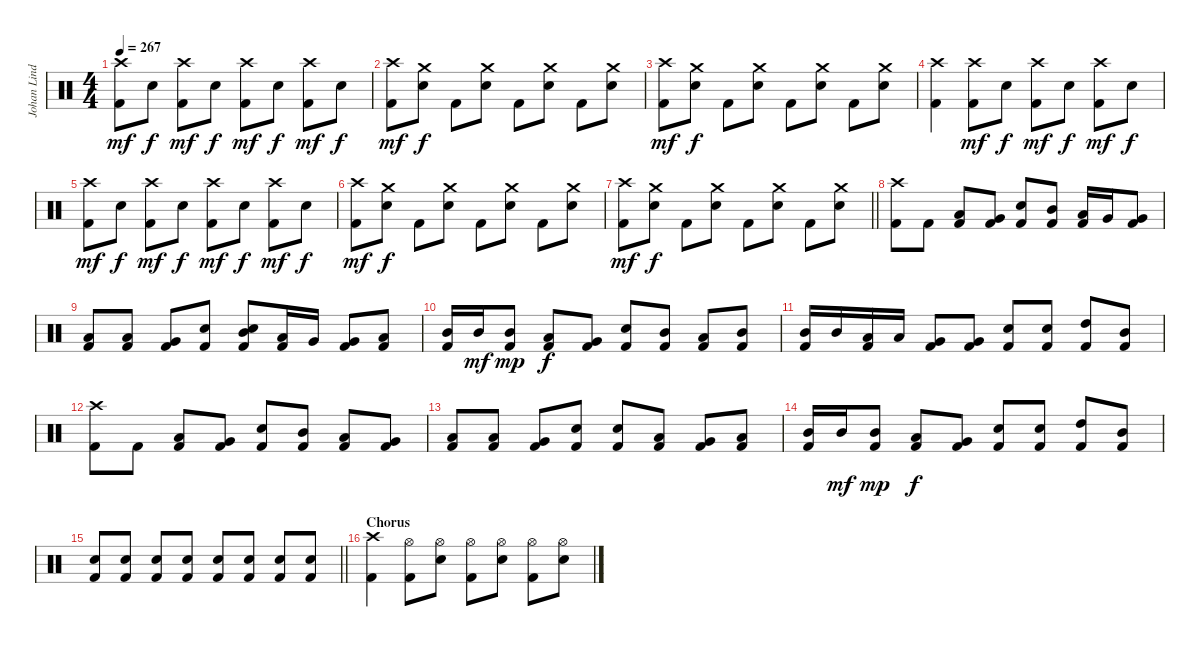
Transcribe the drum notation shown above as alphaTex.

\track ("Johan Lindstrand" "Johan Lind") {instrument percussion}
\staff {score}
\articulation defaults
\ts (4 4)
\tempo 267
\clef neutral
\ks c
("Crash high (hit)" "Kick (hit) 2").8{dy mf} "Electric Snare (hit)".8{dy f} ("Crash high (hit)" "Kick (hit) 2").8{dy mf} "Electric Snare (hit)".8{dy f} ("Crash high (hit)" "Kick (hit) 2").8{dy mf} "Electric Snare (hit)".8{dy f} ("Crash high (hit)" "Kick (hit) 2").8{dy mf} "Electric Snare (hit)".8{dy f} |
("Crash high (hit)" "Kick (hit) 2").8{dy mf} ("Crash medium (hit)" "Electric Snare (hit)").8{dy f} "Kick (hit) 2".8 ("Crash medium (hit)" "Electric Snare (hit)").8 "Kick (hit) 2".8 ("Crash medium (hit)" "Electric Snare (hit)").8 "Kick (hit) 2".8 ("Crash medium (hit)" "Electric Snare (hit)").8 |
("Crash high (hit)" "Kick (hit) 2").8{dy mf} ("Crash medium (hit)" "Electric Snare (hit)").8{dy f} "Kick (hit) 2".8 ("Crash medium (hit)" "Electric Snare (hit)").8 "Kick (hit) 2".8 ("Crash medium (hit)" "Electric Snare (hit)").8 "Kick (hit) 2".8 ("Crash medium (hit)" "Electric Snare (hit)").8 |
("Crash high (hit)" "Kick (hit) 2").4 ("Crash high (hit)" "Kick (hit) 2").8{dy mf} "Electric Snare (hit)".8{dy f} ("Crash high (hit)" "Kick (hit) 2").8{dy mf} "Electric Snare (hit)".8{dy f} ("Crash high (hit)" "Kick (hit) 2").8{dy mf} "Electric Snare (hit)".8{dy f} |
("Crash high (hit)" "Kick (hit) 2").8{dy mf} "Electric Snare (hit)".8{dy f} ("Crash high (hit)" "Kick (hit) 2").8{dy mf} "Electric Snare (hit)".8{dy f} ("Crash high (hit)" "Kick (hit) 2").8{dy mf} "Electric Snare (hit)".8{dy f} ("Crash high (hit)" "Kick (hit) 2").8{dy mf} "Electric Snare (hit)".8{dy f} |
("Crash high (hit)" "Kick (hit) 2").8{dy mf} ("Crash medium (hit)" "Electric Snare (hit)").8{dy f} "Kick (hit) 2".8 ("Crash medium (hit)" "Electric Snare (hit)").8 "Kick (hit) 2".8 ("Crash medium (hit)" "Electric Snare (hit)").8 "Kick (hit) 2".8 ("Crash medium (hit)" "Electric Snare (hit)").8 |
\barLineRight lightlight
("Crash high (hit)" "Kick (hit) 2").8{dy mf} ("Crash medium (hit)" "Electric Snare (hit)").8{dy f} "Kick (hit) 2".8 ("Crash medium (hit)" "Electric Snare (hit)").8 "Kick (hit) 2".8 ("Crash medium (hit)" "Electric Snare (hit)").8 "Kick (hit) 2".8 ("Crash medium (hit)" "Electric Snare (hit)").8 |
("Crash high (hit)" "Kick (hit) 2").8 "Kick (hit) 2".8 ("Low Tom (hit)" "Kick (hit) 2").8 ("Very Low Tom (hit)" "Kick (hit) 2").8 ("Electric Snare (hit)" "Kick (hit) 2").8 ("Mid Tom (hit)" "Kick (hit) 2").8 ("Low Tom (hit)" "Kick (hit) 2").16 "Very Low Tom (hit)".16 ("Very Low Tom (hit)" "Kick (hit) 2").8 |
("Low Floor Tom (hit)" "Kick (hit) 2").8 ("Low Tom (hit)" "Kick (hit) 2").8 ("Very Low Tom (hit)" "Kick (hit) 2").8 ("Electric Snare (hit)" "Kick (hit) 2").8 ("Mid Tom (hit)" "Electric Snare (hit)" "Kick (hit) 2").8 ("Low Tom (hit)" "Kick (hit) 2").16 "Very Low Tom (hit)".16 ("Very Low Tom (hit)" "Kick (hit) 2").8 ("Low Floor Tom (hit)" "Kick (hit) 2").8 |
("Mid Tom (hit)" "Kick (hit) 2").16 "Mid Tom (hit)".16{dy mf} ("Mid Tom (hit)" "Kick (hit) 2").8{dy mp} ("Low Tom (hit)" "Kick (hit) 2").8{dy f} ("Very Low Tom (hit)" "Kick (hit) 2").8 ("Electric Snare (hit)" "Kick (hit) 2").8 ("Mid Tom (hit)" "Kick (hit) 2").8 ("Low Tom (hit)" "Kick (hit) 2").8 ("Mid Tom (hit)" "Kick (hit) 2").8 |
("Mid Tom (hit)" "Kick (hit) 2").16 "Mid Tom (hit)".16 ("Low Tom (hit)" "Kick (hit) 2").16 "Low Tom (hit)".16 ("Very Low Tom (hit)" "Kick (hit) 2").8 ("Very Low Tom (hit)" "Kick (hit) 2").8 ("Electric Snare (hit)" "Kick (hit) 2").8 ("Electric Snare (hit)" "Kick (hit) 2").8 ("High Tom (hit)" "Kick (hit) 2").8 ("Mid Tom (hit)" "Kick (hit) 2").8 |
("Crash high (hit)" "Kick (hit) 2").8 "Kick (hit) 2".8 ("Low Tom (hit)" "Kick (hit) 2").8 ("Very Low Tom (hit)" "Kick (hit) 2").8 ("Electric Snare (hit)" "Kick (hit) 2").8 ("Mid Tom (hit)" "Kick (hit) 2").8 ("Low Tom (hit)" "Kick (hit) 2").8 ("Very Low Tom (hit)" "Kick (hit) 2").8 |
("Low Floor Tom (hit)" "Kick (hit) 2").8 ("Low Tom (hit)" "Kick (hit) 2").8 ("Very Low Tom (hit)" "Kick (hit) 2").8 ("Electric Snare (hit)" "Kick (hit) 2").8 ("Electric Snare (hit)" "Kick (hit) 2").8 ("Low Tom (hit)" "Kick (hit) 2").8 ("Very Low Tom (hit)" "Kick (hit) 2").8 ("Low Floor Tom (hit)" "Kick (hit) 2").8 |
("Mid Tom (hit)" "Kick (hit) 2").16 "Mid Tom (hit)".16{dy mf} ("Mid Tom (hit)" "Kick (hit) 2").8{dy mp} ("Low Tom (hit)" "Kick (hit) 2").8{dy f} ("Very Low Tom (hit)" "Kick (hit) 2").8 ("Electric Snare (hit)" "Kick (hit) 2").8 ("Electric Snare (hit)" "Kick (hit) 2").8 ("High Tom (hit)" "Kick (hit) 2").8 ("Mid Tom (hit)" "Kick (hit) 2").8 |
\barLineRight lightlight
("Electric Snare (hit)" "Kick (hit) 2").8 ("Electric Snare (hit)" "Kick (hit) 2").8 ("Electric Snare (hit)" "Kick (hit) 2").8 ("Electric Snare (hit)" "Kick (hit) 2").8 ("Electric Snare (hit)" "Kick (hit) 2").8 ("Electric Snare (hit)" "Kick (hit) 2").8 ("Electric Snare (hit)" "Kick (hit) 2").8 ("Electric Snare (hit)" "Kick (hit) 2").8 |
\section ("" "Chorus")
("Crash high (hit)" "Kick (hit) 2").4 ("Hi-Hat (open)" "Kick (hit) 2").8 ("Hi-Hat (open)" "Electric Snare (hit)").8 ("Hi-Hat (open)" "Kick (hit) 2").8 ("Hi-Hat (open)" "Electric Snare (hit)").8 ("Hi-Hat (open)" "Kick (hit) 2").8 ("Hi-Hat (open)" "Electric Snare (hit)").8
